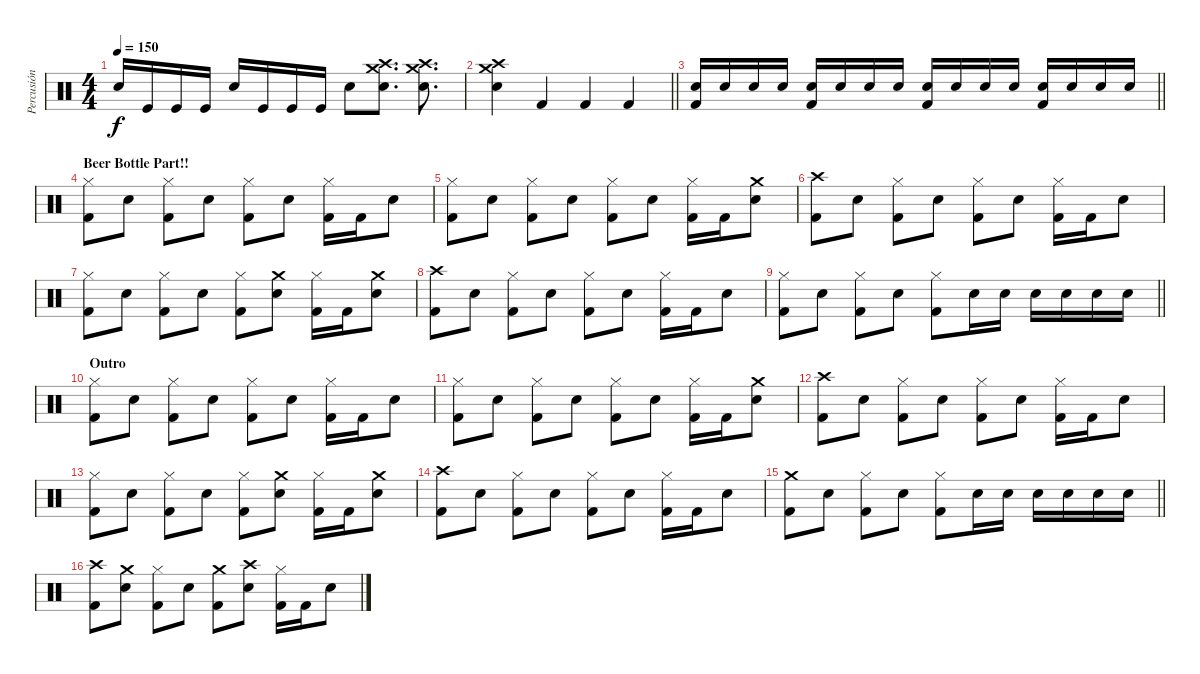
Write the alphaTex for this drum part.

\track ("Percusión" "Percusión") {instrument percussion}
\staff {score}
\articulation defaults
\ts (4 4)
\tempo 150
\clef neutral
\ks c "Snare (hit) 2".16{dy f} "Kick (hit)".16 "Kick (hit)".16 "Kick (hit)".16 "Snare (hit) 2".16 "Kick (hit)".16 "Kick (hit)".16 "Kick (hit)".16 "Snare (hit) 2".8
("Crash medium (hit)" "Crash high (hit)" "Snare (hit) 2").8{d} ("Crash medium (hit)" "Crash high (hit)" "Snare (hit) 2").8{d} |
\barLineRight lightlight
("Crash medium (hit)" "Crash high (hit)" "Snare (hit) 2").4 "Kick (hit) 2".4 "Kick (hit) 2".4 "Kick (hit) 2".4 |
\barLineRight lightlight
("Snare (hit) 2" "Kick (hit) 2").16 "Snare (hit) 2".16 "Snare (hit) 2".16 "Snare (hit) 2".16 ("Snare (hit) 2" "Kick (hit) 2").16 "Snare (hit) 2".16 "Snare (hit) 2".16 "Snare (hit) 2".16 ("Snare (hit) 2" "Kick (hit) 2").16 "Snare (hit) 2".16 "Snare (hit) 2".16 "Snare (hit) 2".16 ("Snare (hit) 2" "Kick (hit) 2").16 "Snare (hit) 2".16 "Snare (hit) 2".16 "Snare (hit) 2".16 |
\section ("" "Beer Bottle Part!!")
("Hi-Hat (closed)" "Kick (hit) 2").8 "Snare (hit) 2".8 ("Hi-Hat (closed)" "Kick (hit) 2").8 "Snare (hit) 2".8 ("Hi-Hat (closed)" "Kick (hit) 2").8 "Snare (hit) 2".8 ("Hi-Hat (closed)" "Kick (hit) 2").16 "Kick (hit) 2".16 "Snare (hit) 2".8 |
("Hi-Hat (closed)" "Kick (hit) 2").8 "Snare (hit) 2".8 ("Hi-Hat (closed)" "Kick (hit) 2").8 "Snare (hit) 2".8 ("Hi-Hat (closed)" "Kick (hit) 2").8 "Snare (hit) 2".8 ("Hi-Hat (closed)" "Kick (hit) 2").16 "Kick (hit) 2".16 ("Crash medium (hit)" "Snare (hit) 2").8 |
("Crash high (hit)" "Kick (hit) 2").8 "Snare (hit) 2".8 ("Hi-Hat (closed)" "Kick (hit) 2").8 "Snare (hit) 2".8 ("Hi-Hat (closed)" "Kick (hit) 2").8 "Snare (hit) 2".8 ("Hi-Hat (closed)" "Kick (hit) 2").16 "Kick (hit) 2".16 "Snare (hit) 2".8 |
("Hi-Hat (closed)" "Kick (hit) 2").8 "Snare (hit) 2".8 ("Hi-Hat (closed)" "Kick (hit) 2").8 "Snare (hit) 2".8 ("Hi-Hat (closed)" "Kick (hit) 2").8 ("Crash medium (hit)" "Snare (hit) 2").8 ("Hi-Hat (closed)" "Kick (hit) 2").16 "Kick (hit) 2".16 ("Crash medium (hit)" "Snare (hit) 2").8 |
("Crash high (hit)" "Kick (hit) 2").8 "Snare (hit) 2".8 ("Hi-Hat (closed)" "Kick (hit) 2").8 "Snare (hit) 2".8 ("Hi-Hat (closed)" "Kick (hit) 2").8 "Snare (hit) 2".8 ("Hi-Hat (closed)" "Kick (hit) 2").16 "Kick (hit) 2".16 "Snare (hit) 2".8 |
\barLineRight lightlight
("Hi-Hat (closed)" "Kick (hit) 2").8 "Snare (hit) 2".8 ("Hi-Hat (closed)" "Kick (hit) 2").8 "Snare (hit) 2".8 ("Hi-Hat (closed)" "Kick (hit) 2").8 "Snare (hit) 2".16 "Snare (hit) 2".16 "Snare (hit) 2".16 "Snare (hit) 2".16 "Snare (hit) 2".16 "Snare (hit) 2".16 |
\section ("" "Outro")
("Hi-Hat (closed)" "Kick (hit) 2").8 "Snare (hit) 2".8 ("Hi-Hat (closed)" "Kick (hit) 2").8 "Snare (hit) 2".8 ("Hi-Hat (closed)" "Kick (hit) 2").8 "Snare (hit) 2".8 ("Hi-Hat (closed)" "Kick (hit) 2").16 "Kick (hit) 2".16 "Snare (hit) 2".8 |
("Hi-Hat (closed)" "Kick (hit) 2").8 "Snare (hit) 2".8 ("Hi-Hat (closed)" "Kick (hit) 2").8 "Snare (hit) 2".8 ("Hi-Hat (closed)" "Kick (hit) 2").8 "Snare (hit) 2".8 ("Hi-Hat (closed)" "Kick (hit) 2").16 "Kick (hit) 2".16 ("Crash medium (hit)" "Snare (hit) 2").8 |
("Crash high (hit)" "Kick (hit) 2").8 "Snare (hit) 2".8 ("Hi-Hat (closed)" "Kick (hit) 2").8 "Snare (hit) 2".8 ("Hi-Hat (closed)" "Kick (hit) 2").8 "Snare (hit) 2".8 ("Hi-Hat (closed)" "Kick (hit) 2").16 "Kick (hit) 2".16 "Snare (hit) 2".8 |
("Hi-Hat (closed)" "Kick (hit) 2").8 "Snare (hit) 2".8 ("Hi-Hat (closed)" "Kick (hit) 2").8 "Snare (hit) 2".8 ("Hi-Hat (closed)" "Kick (hit) 2").8 ("Crash medium (hit)" "Snare (hit) 2").8 ("Hi-Hat (closed)" "Kick (hit) 2").16 "Kick (hit) 2".16 ("Crash medium (hit)" "Snare (hit) 2").8 |
("Crash high (hit)" "Kick (hit) 2").8 "Snare (hit) 2".8 ("Hi-Hat (closed)" "Kick (hit) 2").8 "Snare (hit) 2".8 ("Hi-Hat (closed)" "Kick (hit) 2").8 "Snare (hit) 2".8 ("Hi-Hat (closed)" "Kick (hit) 2").16 "Kick (hit) 2".16 "Snare (hit) 2".8 |
\barLineRight lightlight
("Crash medium (hit)" "Kick (hit) 2").8 "Snare (hit) 2".8 ("Hi-Hat (closed)" "Kick (hit) 2").8 "Snare (hit) 2".8 ("Hi-Hat (closed)" "Kick (hit) 2").8 "Snare (hit) 2".16 "Snare (hit) 2".16 "Snare (hit) 2".16 "Snare (hit) 2".16 "Snare (hit) 2".16 "Snare (hit) 2".16 |
("Crash high (hit)" "Kick (hit) 2").8 ("Crash medium (hit)" "Snare (hit) 2").8 ("Hi-Hat (closed)" "Kick (hit) 2").8 "Snare (hit) 2".8 ("Crash medium (hit)" "Kick (hit) 2").8 ("Crash high (hit)" "Snare (hit) 2").8 ("Hi-Hat (closed)" "Kick (hit) 2").16 "Kick (hit) 2".16 "Snare (hit) 2".8
